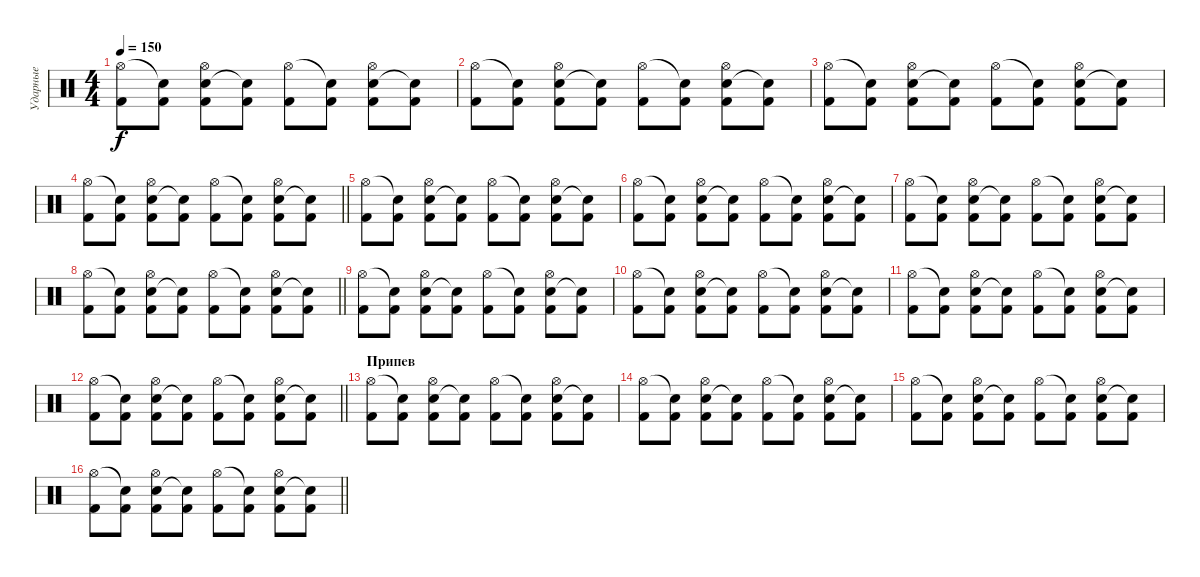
\track ("Ударные" "Ударные") {instrument percussion}
\staff {score}
\articulation defaults
\ts (4 4)
\tempo 150
\clef neutral
\ks c
("Hi-Hat (open)" "Kick (hit) 2").8{dy f} ("Snare (hit)"{t} "Kick (hit) 2").8 ("Electric Snare (hit)" "Hi-Hat (open)" "Kick (hit) 2").8 ("Snare (hit)"{t} "Kick (hit) 2").8 ("Hi-Hat (open)" "Kick (hit) 2").8 ("Snare (hit)"{t} "Kick (hit) 2").8 ("Electric Snare (hit)" "Hi-Hat (open)" "Kick (hit) 2").8 ("Snare (hit)"{t} "Kick (hit) 2").8 |
("Hi-Hat (open)" "Kick (hit) 2").8 ("Snare (hit)"{t} "Kick (hit) 2").8 ("Electric Snare (hit)" "Hi-Hat (open)" "Kick (hit) 2").8 ("Snare (hit)"{t} "Kick (hit) 2").8 ("Hi-Hat (open)" "Kick (hit) 2").8 ("Snare (hit)"{t} "Kick (hit) 2").8 ("Electric Snare (hit)" "Hi-Hat (open)" "Kick (hit) 2").8 ("Snare (hit)"{t} "Kick (hit) 2").8 |
("Hi-Hat (open)" "Kick (hit) 2").8 ("Snare (hit)"{t} "Kick (hit) 2").8 ("Electric Snare (hit)" "Hi-Hat (open)" "Kick (hit) 2").8 ("Snare (hit)"{t} "Kick (hit) 2").8 ("Hi-Hat (open)" "Kick (hit) 2").8 ("Snare (hit)"{t} "Kick (hit) 2").8 ("Electric Snare (hit)" "Hi-Hat (open)" "Kick (hit) 2").8 ("Snare (hit)"{t} "Kick (hit) 2").8 |
\barLineRight lightlight
("Hi-Hat (open)" "Kick (hit) 2").8 ("Snare (hit)"{t} "Kick (hit) 2").8 ("Electric Snare (hit)" "Hi-Hat (open)" "Kick (hit) 2").8 ("Snare (hit)"{t} "Kick (hit) 2").8 ("Hi-Hat (open)" "Kick (hit) 2").8 ("Snare (hit)"{t} "Kick (hit) 2").8 ("Electric Snare (hit)" "Hi-Hat (open)" "Kick (hit) 2").8 ("Snare (hit)"{t} "Kick (hit) 2").8 |
("Hi-Hat (open)" "Kick (hit) 2").8 ("Snare (hit)"{t} "Kick (hit) 2").8 ("Electric Snare (hit)" "Hi-Hat (open)" "Kick (hit) 2").8 ("Snare (hit)"{t} "Kick (hit) 2").8 ("Hi-Hat (open)" "Kick (hit) 2").8 ("Snare (hit)"{t} "Kick (hit) 2").8 ("Electric Snare (hit)" "Hi-Hat (open)" "Kick (hit) 2").8 ("Snare (hit)"{t} "Kick (hit) 2").8 |
("Hi-Hat (open)" "Kick (hit) 2").8 ("Snare (hit)"{t} "Kick (hit) 2").8 ("Electric Snare (hit)" "Hi-Hat (open)" "Kick (hit) 2").8 ("Snare (hit)"{t} "Kick (hit) 2").8 ("Hi-Hat (open)" "Kick (hit) 2").8 ("Snare (hit)"{t} "Kick (hit) 2").8 ("Electric Snare (hit)" "Hi-Hat (open)" "Kick (hit) 2").8 ("Snare (hit)"{t} "Kick (hit) 2").8 |
("Hi-Hat (open)" "Kick (hit) 2").8 ("Snare (hit)"{t} "Kick (hit) 2").8 ("Electric Snare (hit)" "Hi-Hat (open)" "Kick (hit) 2").8 ("Snare (hit)"{t} "Kick (hit) 2").8 ("Hi-Hat (open)" "Kick (hit) 2").8 ("Snare (hit)"{t} "Kick (hit) 2").8 ("Electric Snare (hit)" "Hi-Hat (open)" "Kick (hit) 2").8 ("Snare (hit)"{t} "Kick (hit) 2").8 |
\barLineRight lightlight
("Hi-Hat (open)" "Kick (hit) 2").8 ("Snare (hit)"{t} "Kick (hit) 2").8 ("Electric Snare (hit)" "Hi-Hat (open)" "Kick (hit) 2").8 ("Snare (hit)"{t} "Kick (hit) 2").8 ("Hi-Hat (open)" "Kick (hit) 2").8 ("Snare (hit)"{t} "Kick (hit) 2").8 ("Electric Snare (hit)" "Hi-Hat (open)" "Kick (hit) 2").8 ("Snare (hit)"{t} "Kick (hit) 2").8 |
("Hi-Hat (open)" "Kick (hit) 2").8 ("Snare (hit)"{t} "Kick (hit) 2").8 ("Electric Snare (hit)" "Hi-Hat (open)" "Kick (hit) 2").8 ("Snare (hit)"{t} "Kick (hit) 2").8 ("Hi-Hat (open)" "Kick (hit) 2").8 ("Snare (hit)"{t} "Kick (hit) 2").8 ("Electric Snare (hit)" "Hi-Hat (open)" "Kick (hit) 2").8 ("Snare (hit)"{t} "Kick (hit) 2").8 |
("Hi-Hat (open)" "Kick (hit) 2").8 ("Snare (hit)"{t} "Kick (hit) 2").8 ("Electric Snare (hit)" "Hi-Hat (open)" "Kick (hit) 2").8 ("Snare (hit)"{t} "Kick (hit) 2").8 ("Hi-Hat (open)" "Kick (hit) 2").8 ("Snare (hit)"{t} "Kick (hit) 2").8 ("Electric Snare (hit)" "Hi-Hat (open)" "Kick (hit) 2").8 ("Snare (hit)"{t} "Kick (hit) 2").8 |
("Hi-Hat (open)" "Kick (hit) 2").8 ("Snare (hit)"{t} "Kick (hit) 2").8 ("Electric Snare (hit)" "Hi-Hat (open)" "Kick (hit) 2").8 ("Snare (hit)"{t} "Kick (hit) 2").8 ("Hi-Hat (open)" "Kick (hit) 2").8 ("Snare (hit)"{t} "Kick (hit) 2").8 ("Electric Snare (hit)" "Hi-Hat (open)" "Kick (hit) 2").8 ("Snare (hit)"{t} "Kick (hit) 2").8 |
\barLineRight lightlight
("Hi-Hat (open)" "Kick (hit) 2").8 ("Snare (hit)"{t} "Kick (hit) 2").8 ("Electric Snare (hit)" "Hi-Hat (open)" "Kick (hit) 2").8 ("Snare (hit)"{t} "Kick (hit) 2").8 ("Hi-Hat (open)" "Kick (hit) 2").8 ("Snare (hit)"{t} "Kick (hit) 2").8 ("Electric Snare (hit)" "Hi-Hat (open)" "Kick (hit) 2").8 ("Snare (hit)"{t} "Kick (hit) 2").8 |
\section ("" "Припев")
("Hi-Hat (open)" "Kick (hit) 2").8 ("Snare (hit)"{t} "Kick (hit) 2").8 ("Electric Snare (hit)" "Hi-Hat (open)" "Kick (hit) 2").8 ("Snare (hit)"{t} "Kick (hit) 2").8 ("Hi-Hat (open)" "Kick (hit) 2").8 ("Snare (hit)"{t} "Kick (hit) 2").8 ("Electric Snare (hit)" "Hi-Hat (open)" "Kick (hit) 2").8 ("Snare (hit)"{t} "Kick (hit) 2").8 |
("Hi-Hat (open)" "Kick (hit) 2").8 ("Snare (hit)"{t} "Kick (hit) 2").8 ("Electric Snare (hit)" "Hi-Hat (open)" "Kick (hit) 2").8 ("Snare (hit)"{t} "Kick (hit) 2").8 ("Hi-Hat (open)" "Kick (hit) 2").8 ("Snare (hit)"{t} "Kick (hit) 2").8 ("Electric Snare (hit)" "Hi-Hat (open)" "Kick (hit) 2").8 ("Snare (hit)"{t} "Kick (hit) 2").8 |
("Hi-Hat (open)" "Kick (hit) 2").8 ("Snare (hit)"{t} "Kick (hit) 2").8 ("Electric Snare (hit)" "Hi-Hat (open)" "Kick (hit) 2").8 ("Snare (hit)"{t} "Kick (hit) 2").8 ("Hi-Hat (open)" "Kick (hit) 2").8 ("Snare (hit)"{t} "Kick (hit) 2").8 ("Electric Snare (hit)" "Hi-Hat (open)" "Kick (hit) 2").8 ("Snare (hit)"{t} "Kick (hit) 2").8 |
\barLineRight lightlight
("Hi-Hat (open)" "Kick (hit) 2").8 ("Snare (hit)"{t} "Kick (hit) 2").8 ("Electric Snare (hit)" "Hi-Hat (open)" "Kick (hit) 2").8 ("Snare (hit)"{t} "Kick (hit) 2").8 ("Hi-Hat (open)" "Kick (hit) 2").8 ("Snare (hit)"{t} "Kick (hit) 2").8 ("Electric Snare (hit)" "Hi-Hat (open)" "Kick (hit) 2").8 ("Snare (hit)"{t} "Kick (hit) 2").8
